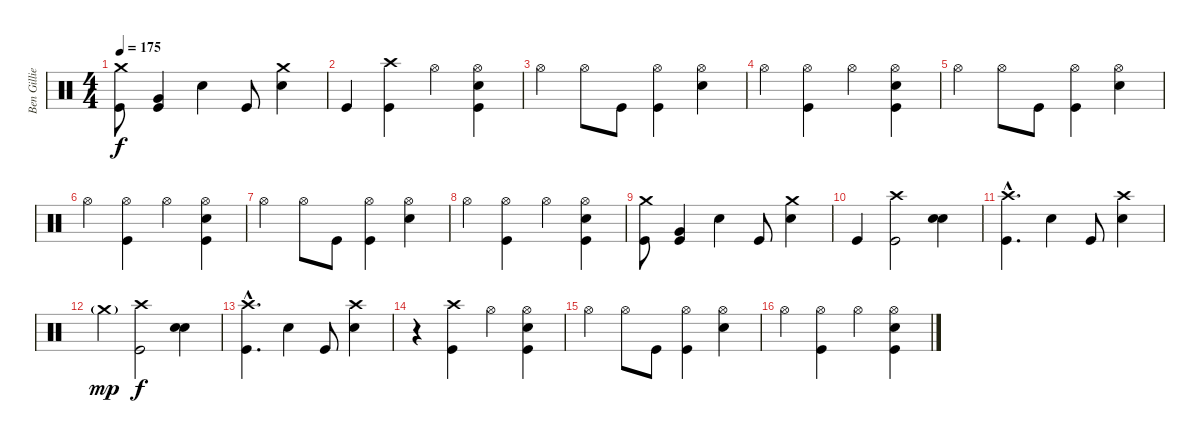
\track ("Ben Gillies" "Ben Gillie") {instrument percussion}
\staff {score}
\articulation defaults
\ts (4 4)
\tempo 175
\clef neutral
\ks c
("Kick (hit)" "Crash medium (hit)").8{dy f} ("Kick (hit)" "Very Low Tom (hit)").4 "Snare (hit) 2".4 "Kick (hit)".8 ("Snare (hit) 2" "Crash medium (hit)").4 |
"Kick (hit)".4 ("Kick (hit)" "Crash high (hit)").4 "Hi-Hat (open)".4 ("Kick (hit)" "Snare (hit) 2" "Hi-Hat (open)").4 |
"Hi-Hat (open)".4 "Hi-Hat (open)".8 "Kick (hit)".8 ("Kick (hit)" "Hi-Hat (open)").4 ("Snare (hit) 2" "Hi-Hat (open)").4 |
"Hi-Hat (open)".4 ("Kick (hit)" "Hi-Hat (open)").4 "Hi-Hat (open)".4 ("Kick (hit)" "Snare (hit) 2" "Hi-Hat (open)").4 |
"Hi-Hat (open)".4 "Hi-Hat (open)".8 "Kick (hit)".8 ("Kick (hit)" "Hi-Hat (open)").4 ("Snare (hit) 2" "Hi-Hat (open)").4 |
"Hi-Hat (open)".4 ("Kick (hit)" "Hi-Hat (open)").4 "Hi-Hat (open)".4 ("Kick (hit)" "Snare (hit) 2" "Hi-Hat (open)").4 |
"Hi-Hat (open)".4 "Hi-Hat (open)".8 "Kick (hit)".8 ("Kick (hit)" "Hi-Hat (open)").4 ("Snare (hit) 2" "Hi-Hat (open)").4 |
"Hi-Hat (open)".4 ("Kick (hit)" "Hi-Hat (open)").4 "Hi-Hat (open)".4 ("Kick (hit)" "Snare (hit) 2" "Hi-Hat (open)").4 |
("Kick (hit)" "Crash medium (hit)").8 ("Kick (hit)" "Very Low Tom (hit)").4 "Snare (hit) 2".4 "Kick (hit)".8 ("Snare (hit) 2" "Crash medium (hit)").4 |
"Kick (hit)".4 ("Kick (hit)" "Crash high (hit)").2 ("Snare (hit) 2" "Snare (hit) 2").4{bu 60} |
("Kick (hit)"{hac} "Crash high (hit)"{hac}).4{d} "Snare (hit) 2".4 "Kick (hit)".8 ("Snare (hit) 2" "Crash high (hit)").4 |
"Crash medium (hit)"{g}.4{dy mp} ("Kick (hit)" "Crash high (hit)").2{dy f} ("Snare (hit) 2" "Snare (hit) 2").4{bu 60} |
("Kick (hit)"{hac} "Crash high (hit)"{hac}).4{d} "Snare (hit) 2".4 "Kick (hit)".8 ("Snare (hit) 2" "Crash high (hit)").4 |
r.4 ("Kick (hit)" "Crash high (hit)").4 "Hi-Hat (open)".4 ("Kick (hit)" "Snare (hit) 2" "Hi-Hat (open)").4 |
"Hi-Hat (open)".4 "Hi-Hat (open)".8 "Kick (hit)".8 ("Kick (hit)" "Hi-Hat (open)").4 ("Snare (hit) 2" "Hi-Hat (open)").4 |
"Hi-Hat (open)".4 ("Kick (hit)" "Hi-Hat (open)").4 "Hi-Hat (open)".4 ("Kick (hit)" "Snare (hit) 2" "Hi-Hat (open)").4
